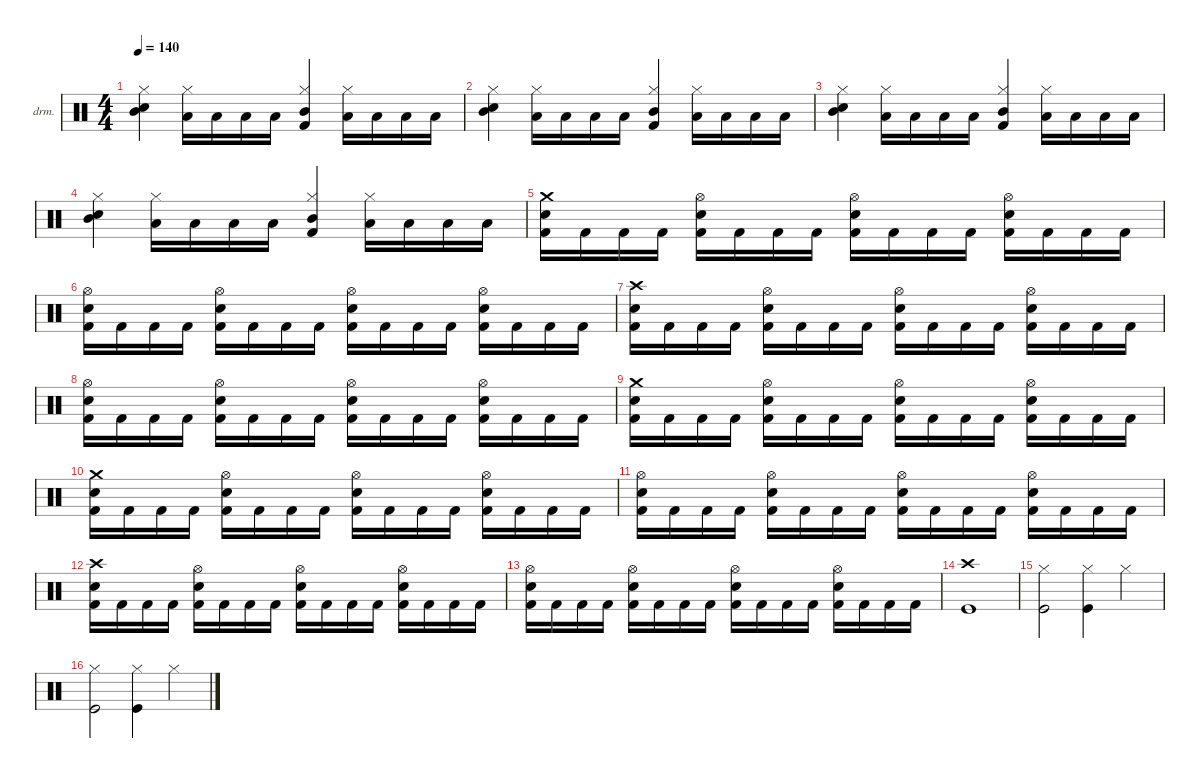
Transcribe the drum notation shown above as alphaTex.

\defaultSystemsLayout 4
\hideDynamics
\bracketExtendMode nobrackets
\firstSystemTrackNameOrientation horizontal
\otherSystemsTrackNameOrientation horizontal
\track ("Drumkit" "drm.") {instrument percussion}
\staff {score}
\articulation defaults
\ts (4 4)
\tempo 140
\clef neutral
\ks c
("Snare (hit) 2" "Mid Tom (hit)" "Hi-Hat (closed)").4{dy fff} ("Low Tom (hit)" "Hi-Hat (closed)").16 "Low Tom (hit)".16 "Low Tom (hit)".16 "Low Tom (hit)".16 ("Mid Tom (hit)" "Kick (hit) 2" "Hi-Hat (closed)").4 ("Low Tom (hit)" "Hi-Hat (closed)").16 "Low Tom (hit)".16 "Low Tom (hit)".16 "Low Tom (hit)".16 |
("Snare (hit) 2" "Mid Tom (hit)" "Hi-Hat (closed)").4 ("Low Tom (hit)" "Hi-Hat (closed)").16 "Low Tom (hit)".16 "Low Tom (hit)".16 "Low Tom (hit)".16 ("Mid Tom (hit)" "Kick (hit) 2" "Hi-Hat (closed)").4 ("Low Tom (hit)" "Hi-Hat (closed)").16 "Low Tom (hit)".16 "Low Tom (hit)".16 "Low Tom (hit)".16 |
("Snare (hit) 2" "Mid Tom (hit)" "Hi-Hat (closed)").4 ("Low Tom (hit)" "Hi-Hat (closed)").16 "Low Tom (hit)".16 "Low Tom (hit)".16 "Low Tom (hit)".16 ("Mid Tom (hit)" "Kick (hit) 2" "Hi-Hat (closed)").4 ("Low Tom (hit)" "Hi-Hat (closed)").16 "Low Tom (hit)".16 "Low Tom (hit)".16 "Low Tom (hit)".16 |
("Snare (hit) 2" "Mid Tom (hit)" "Hi-Hat (closed)").4 ("Low Tom (hit)" "Hi-Hat (closed)").16 "Low Tom (hit)".16 "Low Tom (hit)".16 "Low Tom (hit)".16 ("Mid Tom (hit)" "Kick (hit) 2" "Hi-Hat (closed)").4 ("Low Tom (hit)" "Hi-Hat (closed)").16 "Low Tom (hit)".16 "Low Tom (hit)".16 "Low Tom (hit)".16 |
("Crash medium (hit)" "Snare (hit) 2" "Kick (hit) 2").16{dy mf} "Kick (hit) 2".16 "Kick (hit) 2".16 "Kick (hit) 2".16 ("Hi-Hat (open)" "Snare (hit) 2" "Kick (hit) 2").16 "Kick (hit) 2".16 "Kick (hit) 2".16 "Kick (hit) 2".16 ("Hi-Hat (open)" "Snare (hit) 2" "Kick (hit) 2").16 "Kick (hit) 2".16 "Kick (hit) 2".16 "Kick (hit) 2".16 ("Hi-Hat (open)" "Snare (hit) 2" "Kick (hit) 2").16 "Kick (hit) 2".16 "Kick (hit) 2".16 "Kick (hit) 2".16 |
("Hi-Hat (open)" "Snare (hit) 2" "Kick (hit) 2").16 "Kick (hit) 2".16 "Kick (hit) 2".16 "Kick (hit) 2".16 ("Hi-Hat (open)" "Snare (hit) 2" "Kick (hit) 2").16 "Kick (hit) 2".16 "Kick (hit) 2".16 "Kick (hit) 2".16 ("Hi-Hat (open)" "Snare (hit) 2" "Kick (hit) 2").16 "Kick (hit) 2".16 "Kick (hit) 2".16 "Kick (hit) 2".16 ("Hi-Hat (open)" "Snare (hit) 2" "Kick (hit) 2").16 "Kick (hit) 2".16 "Kick (hit) 2".16 "Kick (hit) 2".16 |
("Crash high (hit)" "Snare (hit) 2" "Kick (hit) 2").16 "Kick (hit) 2".16 "Kick (hit) 2".16 "Kick (hit) 2".16 ("Hi-Hat (open)" "Snare (hit) 2" "Kick (hit) 2").16 "Kick (hit) 2".16 "Kick (hit) 2".16 "Kick (hit) 2".16 ("Hi-Hat (open)" "Snare (hit) 2" "Kick (hit) 2").16 "Kick (hit) 2".16 "Kick (hit) 2".16 "Kick (hit) 2".16 ("Hi-Hat (open)" "Snare (hit) 2" "Kick (hit) 2").16 "Kick (hit) 2".16 "Kick (hit) 2".16 "Kick (hit) 2".16 |
("Hi-Hat (open)" "Snare (hit) 2" "Kick (hit) 2").16 "Kick (hit) 2".16 "Kick (hit) 2".16 "Kick (hit) 2".16 ("Hi-Hat (open)" "Snare (hit) 2" "Kick (hit) 2").16 "Kick (hit) 2".16 "Kick (hit) 2".16 "Kick (hit) 2".16 ("Hi-Hat (open)" "Snare (hit) 2" "Kick (hit) 2").16 "Kick (hit) 2".16 "Kick (hit) 2".16 "Kick (hit) 2".16 ("Hi-Hat (open)" "Snare (hit) 2" "Kick (hit) 2").16 "Kick (hit) 2".16 "Kick (hit) 2".16 "Kick (hit) 2".16 |
("Crash medium (hit)" "Snare (hit) 2" "Kick (hit) 2").16 "Kick (hit) 2".16 "Kick (hit) 2".16 "Kick (hit) 2".16 ("Hi-Hat (open)" "Snare (hit) 2" "Kick (hit) 2").16 "Kick (hit) 2".16 "Kick (hit) 2".16 "Kick (hit) 2".16 ("Hi-Hat (open)" "Snare (hit) 2" "Kick (hit) 2").16 "Kick (hit) 2".16 "Kick (hit) 2".16 "Kick (hit) 2".16 ("Hi-Hat (open)" "Snare (hit) 2" "Kick (hit) 2").16 "Kick (hit) 2".16 "Kick (hit) 2".16 "Kick (hit) 2".16 |
("Crash medium (hit)" "Snare (hit) 2" "Kick (hit) 2").16 "Kick (hit) 2".16 "Kick (hit) 2".16 "Kick (hit) 2".16 ("Hi-Hat (open)" "Snare (hit) 2" "Kick (hit) 2").16 "Kick (hit) 2".16 "Kick (hit) 2".16 "Kick (hit) 2".16 ("Hi-Hat (open)" "Snare (hit) 2" "Kick (hit) 2").16 "Kick (hit) 2".16 "Kick (hit) 2".16 "Kick (hit) 2".16 ("Hi-Hat (open)" "Snare (hit) 2" "Kick (hit) 2").16 "Kick (hit) 2".16 "Kick (hit) 2".16 "Kick (hit) 2".16 |
("Hi-Hat (open)" "Snare (hit) 2" "Kick (hit) 2").16 "Kick (hit) 2".16 "Kick (hit) 2".16 "Kick (hit) 2".16 ("Hi-Hat (open)" "Snare (hit) 2" "Kick (hit) 2").16 "Kick (hit) 2".16 "Kick (hit) 2".16 "Kick (hit) 2".16 ("Hi-Hat (open)" "Snare (hit) 2" "Kick (hit) 2").16 "Kick (hit) 2".16 "Kick (hit) 2".16 "Kick (hit) 2".16 ("Hi-Hat (open)" "Snare (hit) 2" "Kick (hit) 2").16 "Kick (hit) 2".16 "Kick (hit) 2".16 "Kick (hit) 2".16 |
("Crash high (hit)" "Snare (hit) 2" "Kick (hit) 2").16 "Kick (hit) 2".16 "Kick (hit) 2".16 "Kick (hit) 2".16 ("Hi-Hat (open)" "Snare (hit) 2" "Kick (hit) 2").16 "Kick (hit) 2".16 "Kick (hit) 2".16 "Kick (hit) 2".16 ("Hi-Hat (open)" "Snare (hit) 2" "Kick (hit) 2").16 "Kick (hit) 2".16 "Kick (hit) 2".16 "Kick (hit) 2".16 ("Hi-Hat (open)" "Snare (hit) 2" "Kick (hit) 2").16 "Kick (hit) 2".16 "Kick (hit) 2".16 "Kick (hit) 2".16 |
("Hi-Hat (open)" "Snare (hit) 2" "Kick (hit) 2").16 "Kick (hit) 2".16 "Kick (hit) 2".16 "Kick (hit) 2".16 ("Hi-Hat (open)" "Snare (hit) 2" "Kick (hit) 2").16 "Kick (hit) 2".16 "Kick (hit) 2".16 "Kick (hit) 2".16 ("Hi-Hat (open)" "Snare (hit) 2" "Kick (hit) 2").16 "Kick (hit) 2".16 "Kick (hit) 2".16 "Kick (hit) 2".16 ("Hi-Hat (open)" "Snare (hit) 2" "Kick (hit) 2").16 "Kick (hit) 2".16 "Kick (hit) 2".16 "Kick (hit) 2".16 |
("Crash high (hit)" "Kick (hit)").1 |
("Kick (hit)" "Hi-Hat (closed)").2 ("Kick (hit)" "Hi-Hat (closed)").4 "Hi-Hat (closed)".4 |
("Kick (hit)" "Hi-Hat (closed)").2 ("Kick (hit)" "Hi-Hat (closed)").4 "Hi-Hat (closed)".4
